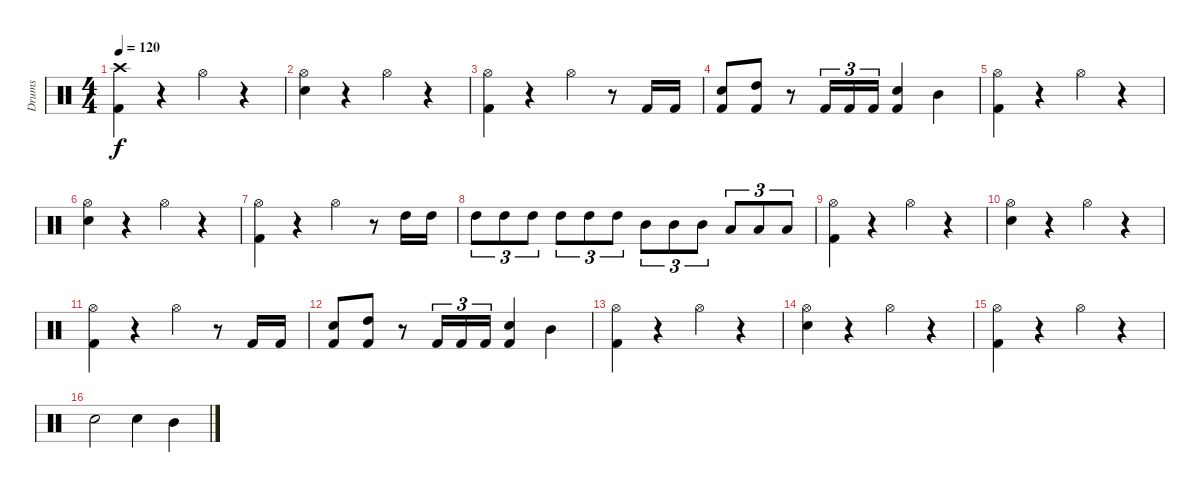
\track ("Drums" "Drums") {instrument percussion}
\staff {score}
\articulation defaults
\ts (4 4)
\tempo 120
\clef neutral
\ks c
("Crash high (hit)" "Kick (hit) 2").4{dy f} r.4 "Hi-Hat (open)".4 r.4 |
("Hi-Hat (open)" "Snare (hit) 2").4 r.4 "Hi-Hat (open)".4 r.4 |
("Hi-Hat (open)" "Kick (hit) 2").4 r.4 "Hi-Hat (open)".4 r.8 "Kick (hit) 2".16 "Kick (hit) 2".16 |
("Snare (hit) 2" "Kick (hit) 2").8 ("High Tom (hit)" "Kick (hit) 2").8 r.8 "Kick (hit) 2".16{tu (3 2)} "Kick (hit) 2".16{tu (3 2)} "Kick (hit) 2".16{tu (3 2)} ("Snare (hit) 2" "Kick (hit) 2").4 "Mid Tom (hit)".4 |
("Hi-Hat (open)" "Kick (hit) 2").4 r.4 "Hi-Hat (open)".4 r.4 |
("Hi-Hat (open)" "Snare (hit) 2").4 r.4 "Hi-Hat (open)".4 r.4 |
("Hi-Hat (open)" "Kick (hit) 2").4 r.4 "Hi-Hat (open)".4 r.8 "High Tom (hit)".16 "High Tom (hit)".16 |
"High Tom (hit)".8{tu (3 2)} "High Tom (hit)".8{tu (3 2)} "High Tom (hit)".8{tu (3 2)} "High Tom (hit)".8{tu (3 2)} "High Tom (hit)".8{tu (3 2)} "High Tom (hit)".8{tu (3 2)} "Mid Tom (hit)".8{tu (3 2)} "Mid Tom (hit)".8{tu (3 2)} "Mid Tom (hit)".8{tu (3 2)} "Low Tom (hit)".8{tu (3 2)} "Low Tom (hit)".8{tu (3 2)} "Low Tom (hit)".8{tu (3 2)} |
("Hi-Hat (open)" "Kick (hit) 2").4 r.4 "Hi-Hat (open)".4 r.4 |
("Hi-Hat (open)" "Snare (hit) 2").4 r.4 "Hi-Hat (open)".4 r.4 |
("Hi-Hat (open)" "Kick (hit) 2").4 r.4 "Hi-Hat (open)".4 r.8 "Kick (hit) 2".16 "Kick (hit) 2".16 |
("Snare (hit) 2" "Kick (hit) 2").8 ("High Tom (hit)" "Kick (hit) 2").8 r.8 "Kick (hit) 2".16{tu (3 2)} "Kick (hit) 2".16{tu (3 2)} "Kick (hit) 2".16{tu (3 2)} ("Snare (hit) 2" "Kick (hit) 2").4 "Mid Tom (hit)".4 |
("Hi-Hat (open)" "Kick (hit) 2").4 r.4 "Hi-Hat (open)".4 r.4 |
("Hi-Hat (open)" "Snare (hit) 2").4 r.4 "Hi-Hat (open)".4 r.4 |
("Hi-Hat (open)" "Kick (hit) 2").4 r.4 "Hi-Hat (open)".4 r.4 |
"Snare (hit) 2".2 "Snare (hit) 2".4 "Mid Tom (hit)".4
